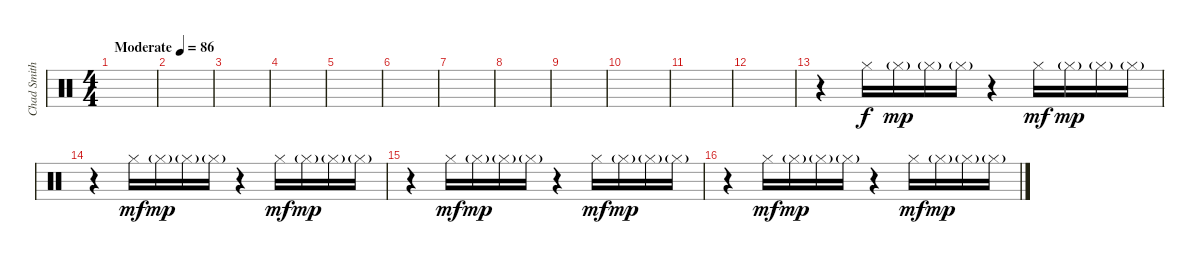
\track ("Chad Smith" "Chad Smith") {instrument percussion}
\staff {score}
\articulation defaults
\ts (4 4)
\tempo (86 "Moderate")
\clef neutral
\ks c
|
|
|
|
|
|
|
|
|
|
|
|
r.4 "Hi-Hat (closed)".16 "Hi-Hat (closed)"{g}.16{dy mp} "Hi-Hat (closed)"{g}.16 "Hi-Hat (closed)"{g}.16 r.4 "Hi-Hat (closed)".16{dy mf} "Hi-Hat (closed)"{g}.16{dy mp} "Hi-Hat (closed)"{g}.16 "Hi-Hat (closed)"{g}.16 |
r.4 "Hi-Hat (closed)".16{dy mf} "Hi-Hat (closed)"{g}.16{dy mp} "Hi-Hat (closed)"{g}.16 "Hi-Hat (closed)"{g}.16 r.4 "Hi-Hat (closed)".16{dy mf} "Hi-Hat (closed)"{g}.16{dy mp} "Hi-Hat (closed)"{g}.16 "Hi-Hat (closed)"{g}.16 |
r.4 "Hi-Hat (closed)".16{dy mf} "Hi-Hat (closed)"{g}.16{dy mp} "Hi-Hat (closed)"{g}.16 "Hi-Hat (closed)"{g}.16 r.4 "Hi-Hat (closed)".16{dy mf} "Hi-Hat (closed)"{g}.16{dy mp} "Hi-Hat (closed)"{g}.16 "Hi-Hat (closed)"{g}.16 |
r.4 "Hi-Hat (closed)".16{dy mf} "Hi-Hat (closed)"{g}.16{dy mp} "Hi-Hat (closed)"{g}.16 "Hi-Hat (closed)"{g}.16 r.4 "Hi-Hat (closed)".16{dy mf} "Hi-Hat (closed)"{g}.16{dy mp} "Hi-Hat (closed)"{g}.16 "Hi-Hat (closed)"{g}.16
